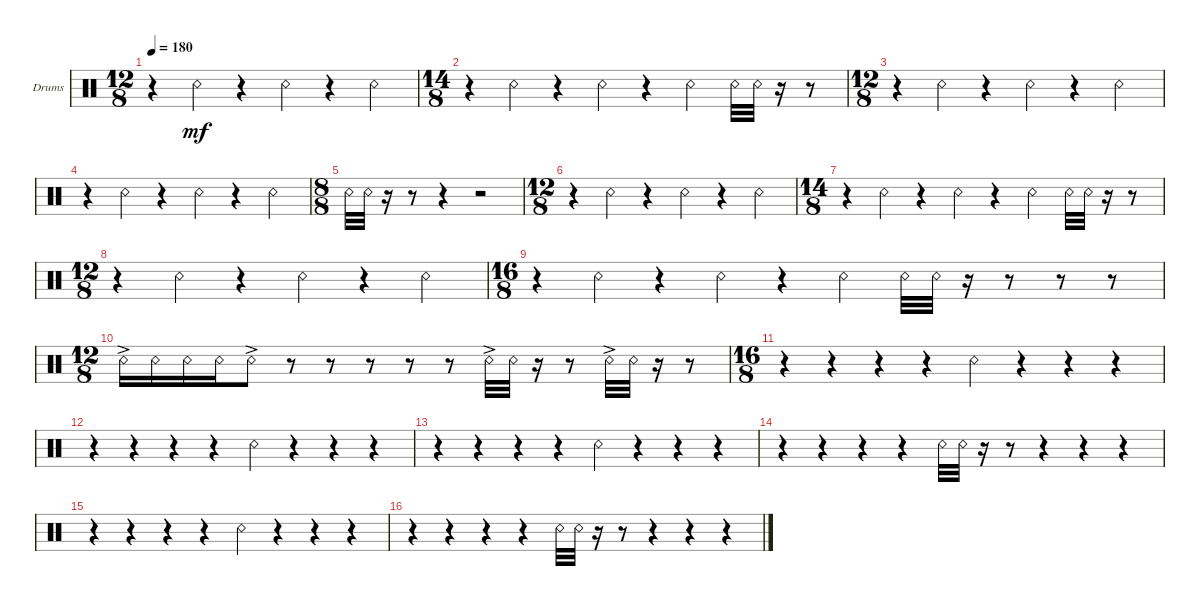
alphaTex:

\defaultSystemsLayout 4
\bracketExtendMode groupsimilarinstruments
\firstSystemTrackNameOrientation horizontal
\otherSystemsTrackNameOrientation horizontal
\track ("Snare 2" "Drums") {instrument percussion}
\staff {score}
\articulation defaults
\ts (12 8)
\tempo 180
\clef neutral
\ks c
r.4{dy mf} "Snare (rim shot)".4 r.4 "Snare (rim shot)".4 r.4 "Snare (rim shot)".4 |
\ts (14 8)
r.4 "Snare (rim shot)".4 r.4 "Snare (rim shot)".4 r.4 "Snare (rim shot)".4 "Snare (rim shot)".32 "Snare (rim shot)".32 r.16 r.8 |
\ts (12 8)
r.4 "Snare (rim shot)".4 r.4 "Snare (rim shot)".4 r.4 "Snare (rim shot)".4 |
r.4 "Snare (rim shot)".4 r.4 "Snare (rim shot)".4 r.4 "Snare (rim shot)".4 |
\ts (8 8)
"Snare (rim shot)".32 "Snare (rim shot)".32 r.16 r.8 r.4 r.2 |
\ts (12 8)
r.4 "Snare (rim shot)".4 r.4 "Snare (rim shot)".4 r.4 "Snare (rim shot)".4 |
\ts (14 8)
r.4 "Snare (rim shot)".4 r.4 "Snare (rim shot)".4 r.4 "Snare (rim shot)".4 "Snare (rim shot)".32 "Snare (rim shot)".32 r.16 r.8 |
\ts (12 8)
r.4 "Snare (rim shot)".4 r.4 "Snare (rim shot)".4 r.4 "Snare (rim shot)".4 |
\ts (16 8)
r.4 "Snare (rim shot)".4 r.4 "Snare (rim shot)".4 r.4 "Snare (rim shot)".4 "Snare (rim shot)".32 "Snare (rim shot)".32 r.16 r.8 r.8 r.8 |
\ts (12 8)
"Snare (rim shot)"{ac}.16 "Snare (rim shot)".16 "Snare (rim shot)".16 "Snare (rim shot)".16 "Snare (rim shot)"{ac}.8 r.8 r.8 r.8 r.8 r.8 "Snare (rim shot)"{ac}.32 "Snare (rim shot)".32 r.16 r.8 "Snare (rim shot)"{ac}.32 "Snare (rim shot)".32 r.16 r.8 |
\ts (16 8)
r.4 r.4 r.4 r.4 "Snare (rim shot)".4 r.4 r.4 r.4 |
r.4 r.4 r.4 r.4 "Snare (rim shot)".4 r.4 r.4 r.4 |
r.4 r.4 r.4 r.4 "Snare (rim shot)".4 r.4 r.4 r.4 |
r.4 r.4 r.4 r.4 "Snare (rim shot)".32 "Snare (rim shot)".32 r.16 r.8 r.4 r.4 r.4 |
r.4 r.4 r.4 r.4 "Snare (rim shot)".4 r.4 r.4 r.4 |
r.4 r.4 r.4 r.4 "Snare (rim shot)".32 "Snare (rim shot)".32 r.16 r.8 r.4 r.4 r.4
